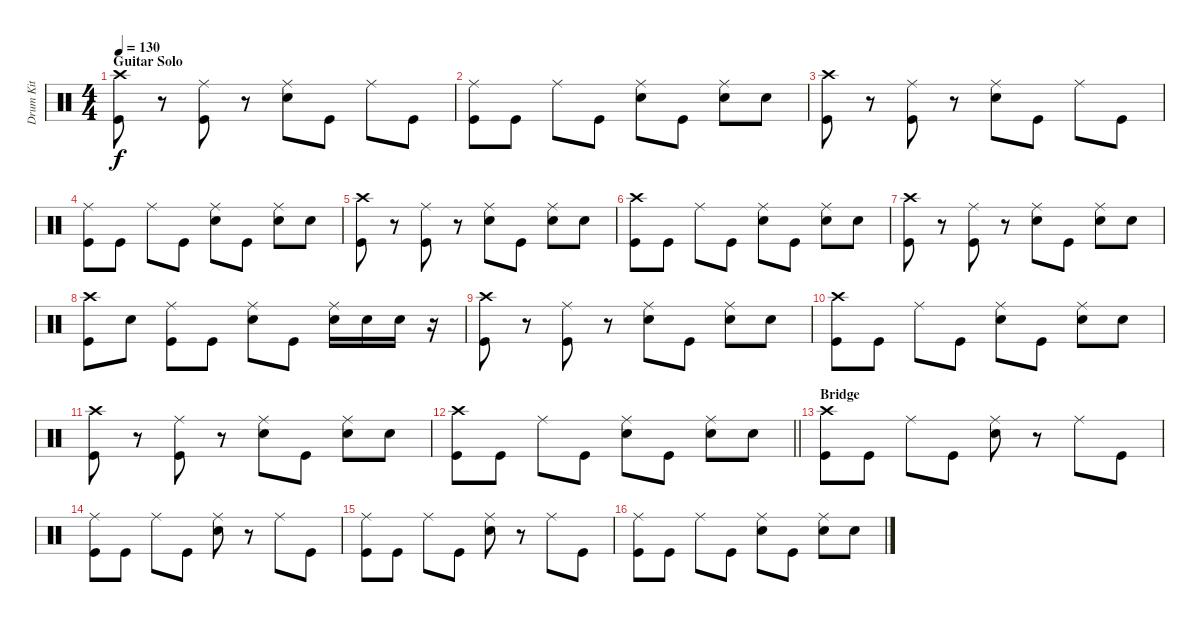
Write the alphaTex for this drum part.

\track ("Drum Kit" "Drum Kit") {instrument percussion}
\staff {score}
\articulation defaults
\ts (4 4)
\section ("" "Guitar Solo")
\tempo 130
\clef neutral
\ks c
("Crash high (hit)" "Kick (hit)").8{dy f volume 15} r.8 ("Ride (middle)" "Kick (hit)").8 r.8 ("Ride (middle)" "Snare (hit) 2").8 "Kick (hit)".8 "Ride (middle)".8 "Kick (hit)".8 |
("Ride (middle)" "Kick (hit)").8 "Kick (hit)".8 "Ride (middle)".8 "Kick (hit)".8 ("Ride (middle)" "Snare (hit) 2").8 "Kick (hit)".8 ("Ride (middle)" "Snare (hit) 2").8 "Snare (hit) 2".8 |
("Crash high (hit)" "Kick (hit)").8 r.8 ("Ride (middle)" "Kick (hit)").8 r.8 ("Ride (middle)" "Snare (hit) 2").8 "Kick (hit)".8 "Ride (middle)".8 "Kick (hit)".8 |
("Ride (middle)" "Kick (hit)").8 "Kick (hit)".8 "Ride (middle)".8 "Kick (hit)".8 ("Ride (middle)" "Snare (hit) 2").8 "Kick (hit)".8 ("Ride (middle)" "Snare (hit) 2").8 "Snare (hit) 2".8 |
("Crash high (hit)" "Kick (hit)").8 r.8 ("Ride (middle)" "Kick (hit)").8 r.8 ("Ride (middle)" "Snare (hit) 2").8 "Kick (hit)".8 ("Ride (middle)" "Snare (hit) 2").8 "Snare (hit) 2".8 |
("Crash high (hit)" "Kick (hit)").8 "Kick (hit)".8 "Ride (middle)".8 "Kick (hit)".8 ("Ride (middle)" "Snare (hit) 2").8 "Kick (hit)".8 ("Ride (middle)" "Snare (hit) 2").8 "Snare (hit) 2".8 |
("Crash high (hit)" "Kick (hit)").8 r.8 ("Ride (middle)" "Kick (hit)").8 r.8 ("Ride (middle)" "Snare (hit) 2").8 "Kick (hit)".8 ("Ride (middle)" "Snare (hit) 2").8 "Snare (hit) 2".8 |
("Crash high (hit)" "Kick (hit)").8 "Snare (hit) 2".8 ("Ride (middle)" "Kick (hit)").8 "Kick (hit)".8 ("Ride (middle)" "Snare (hit) 2").8 "Kick (hit)".8 ("Ride (middle)" "Snare (hit) 2").16 "Snare (hit) 2".16 "Snare (hit) 2".16 r.16 |
("Crash high (hit)" "Kick (hit)").8 r.8 ("Ride (middle)" "Kick (hit)").8 r.8 ("Ride (middle)" "Snare (hit) 2").8 "Kick (hit)".8 ("Ride (middle)" "Snare (hit) 2").8 "Snare (hit) 2".8 |
("Crash high (hit)" "Kick (hit)").8 "Kick (hit)".8 "Ride (middle)".8 "Kick (hit)".8 ("Ride (middle)" "Snare (hit) 2").8 "Kick (hit)".8 ("Ride (middle)" "Snare (hit) 2").8 "Snare (hit) 2".8 |
("Crash high (hit)" "Kick (hit)").8 r.8 ("Ride (middle)" "Kick (hit)").8 r.8 ("Ride (middle)" "Snare (hit) 2").8 "Kick (hit)".8 ("Ride (middle)" "Snare (hit) 2").8 "Snare (hit) 2".8 |
\barLineRight lightlight
("Crash high (hit)" "Kick (hit)").8 "Kick (hit)".8 "Ride (middle)".8 "Kick (hit)".8 ("Ride (middle)" "Snare (hit) 2").8 "Kick (hit)".8 ("Ride (middle)" "Snare (hit) 2").8 "Snare (hit) 2".8 |
\section ("" "Bridge")
("Crash high (hit)" "Kick (hit)").8 "Kick (hit)".8 "Ride (middle)".8 "Kick (hit)".8 ("Ride (middle)" "Snare (hit) 2").8 r.8 "Ride (middle)".8 "Kick (hit)".8 |
("Ride (middle)" "Kick (hit)").8 "Kick (hit)".8 "Ride (middle)".8 "Kick (hit)".8 ("Ride (middle)" "Snare (hit) 2").8 r.8 "Ride (middle)".8 "Kick (hit)".8 |
("Ride (middle)" "Kick (hit)").8 "Kick (hit)".8 "Ride (middle)".8 "Kick (hit)".8 ("Ride (middle)" "Snare (hit) 2").8 r.8 "Ride (middle)".8 "Kick (hit)".8 |
("Ride (middle)" "Kick (hit)").8 "Kick (hit)".8 "Ride (middle)".8 "Kick (hit)".8 ("Ride (middle)" "Snare (hit) 2").8 "Kick (hit)".8 ("Ride (middle)" "Snare (hit) 2").8 "Snare (hit) 2".8
